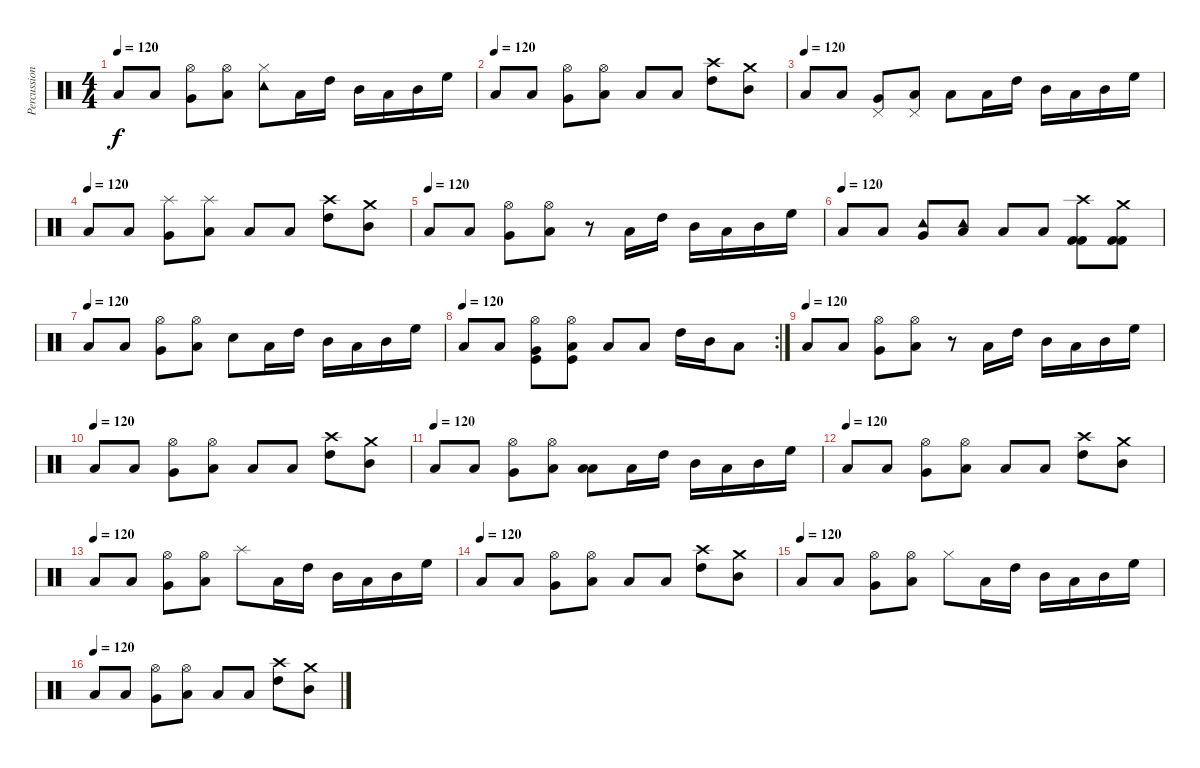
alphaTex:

\track ("Percussion" "Percussion") {instrument percussion}
\staff {score}
\articulation defaults
\ts (4 4)
\tempo 120
\clef neutral
\ks c "Low Floor Tom (hit)".8{dy f} "Low Floor Tom (hit)".8
("Very Low Tom (hit)" "Hi-Hat (open)").8 ("Low Tom (hit)" "Hi-Hat (open)").8 ("Hi-Hat (closed)" "Tambourine (hit)").8 "Low Floor Tom (hit)".16 "High Tom (hit)".16 "Mid Tom (hit)".16 "Low Tom (hit)".16 "Mid Tom (hit)".16 "High Floor Tom (hit)".16 |
\tempo (120)
"Low Floor Tom (hit)".8 "Low Floor Tom (hit)".8 ("Very Low Tom (hit)" "Hi-Hat (open)").8 ("Low Tom (hit)" "Hi-Hat (open)").8 "Low Floor Tom (hit)".8 "Low Floor Tom (hit)".8 ("High Tom (hit)" "Crash high (hit)").8 ("Mid Tom (hit)" "Crash medium (hit)").8 |
\tempo (120)
"Low Floor Tom (hit)".8 "Low Floor Tom (hit)".8 ("Very Low Tom (hit)" "Pedal Hi-Hat (hit)").8 ("Low Tom (hit)" "Pedal Hi-Hat (hit)").8 "Low Tom (hit)".8 "Low Floor Tom (hit)".16 "High Tom (hit)".16 "Mid Tom (hit)".16 "Low Tom (hit)".16 "Mid Tom (hit)".16 "High Floor Tom (hit)".16 |
\tempo (120)
"Low Floor Tom (hit)".8 "Low Floor Tom (hit)".8 ("Very Low Tom (hit)" "Splash (hit)").8 ("Low Tom (hit)" "Splash (hit)").8 "Low Floor Tom (hit)".8 "Low Floor Tom (hit)".8 ("High Tom (hit)" "Crash high (hit)").8 ("Mid Tom (hit)" "Crash medium (hit)").8 |
\tempo (120)
"Low Floor Tom (hit)".8 "Low Floor Tom (hit)".8 ("Very Low Tom (hit)" "Hi-Hat (open)").8 ("Low Tom (hit)" "Hi-Hat (open)").8 r.8 "Low Floor Tom (hit)".16 "High Tom (hit)".16 "Mid Tom (hit)".16 "Low Tom (hit)".16 "Mid Tom (hit)".16 "High Floor Tom (hit)".16 |
\tempo (120)
"Low Floor Tom (hit)".8 "Low Floor Tom (hit)".8 ("Very Low Tom (hit)" "Tambourine (hit)").8 ("Low Tom (hit)" "Tambourine (hit)").8 "Low Floor Tom (hit)".8 "Low Floor Tom (hit)".8 ("Kick (hit) 2" "Crash high (hit)" "Kick (hit) 2").8 ("Kick (hit) 2" "Crash medium (hit)" "Kick (hit) 2").8 |
\tempo (120)
"Low Floor Tom (hit)".8 "Low Floor Tom (hit)".8 ("Very Low Tom (hit)" "Hi-Hat (open)").8 ("Low Tom (hit)" "Hi-Hat (open)").8 "Electric Snare (hit)".8 "Low Floor Tom (hit)".16 "High Tom (hit)".16 "Mid Tom (hit)".16 "Low Tom (hit)".16 "Mid Tom (hit)".16 "High Floor Tom (hit)".16 |
\rc 2
\tempo (120)
"Low Floor Tom (hit)".8 "Low Floor Tom (hit)".8 ("Very Low Tom (hit)" "Hi-Hat (open)" "Kick (hit)").8 ("Low Tom (hit)" "Hi-Hat (open)" "Kick (hit)").8 "Low Floor Tom (hit)".8 "Low Floor Tom (hit)".8 "High Tom (hit)".16 "Mid Tom (hit)".16 "Low Tom (hit)".8 |
\tempo (120)
"Low Floor Tom (hit)".8 "Low Floor Tom (hit)".8 ("Very Low Tom (hit)" "Hi-Hat (open)").8 ("Low Tom (hit)" "Hi-Hat (open)").8 r.8 "Low Floor Tom (hit)".16 "High Tom (hit)".16 "Mid Tom (hit)".16 "Low Tom (hit)".16 "Mid Tom (hit)".16 "High Floor Tom (hit)".16 |
\tempo (120)
"Low Floor Tom (hit)".8 "Low Floor Tom (hit)".8 ("Very Low Tom (hit)" "Hi-Hat (open)").8 ("Low Tom (hit)" "Hi-Hat (open)").8 "Low Floor Tom (hit)".8 "Low Floor Tom (hit)".8 ("High Tom (hit)" "Crash high (hit)").8 ("Mid Tom (hit)" "Crash medium (hit)").8 |
\tempo (120)
"Low Floor Tom (hit)".8 "Low Floor Tom (hit)".8 ("Very Low Tom (hit)" "Hi-Hat (open)").8 ("Low Tom (hit)" "Hi-Hat (open)").8 ("Low Floor Tom (hit)" "Low Tom (hit)").8 "Low Floor Tom (hit)".16 "High Tom (hit)".16 "Mid Tom (hit)".16 "Low Tom (hit)".16 "Mid Tom (hit)".16 "High Floor Tom (hit)".16 |
\tempo (120)
"Low Floor Tom (hit)".8 "Low Floor Tom (hit)".8 ("Very Low Tom (hit)" "Hi-Hat (open)").8 ("Low Tom (hit)" "Hi-Hat (open)").8 "Low Floor Tom (hit)".8 "Low Floor Tom (hit)".8 ("High Tom (hit)" "Crash high (hit)").8 ("Mid Tom (hit)" "Crash medium (hit)").8 |
\tempo (120)
"Low Floor Tom (hit)".8 "Low Floor Tom (hit)".8 ("Very Low Tom (hit)" "Hi-Hat (open)").8 ("Low Tom (hit)" "Hi-Hat (open)").8 "Splash (hit)".8 "Low Floor Tom (hit)".16 "High Tom (hit)".16 "Mid Tom (hit)".16 "Low Tom (hit)".16 "Mid Tom (hit)".16 "High Floor Tom (hit)".16 |
\tempo (120)
"Low Floor Tom (hit)".8 "Low Floor Tom (hit)".8 ("Very Low Tom (hit)" "Hi-Hat (open)").8 ("Low Tom (hit)" "Hi-Hat (open)").8 "Low Floor Tom (hit)".8 "Low Floor Tom (hit)".8 ("High Tom (hit)" "Crash high (hit)").8 ("Mid Tom (hit)" "Crash medium (hit)").8 |
\tempo (120)
"Low Floor Tom (hit)".8 "Low Floor Tom (hit)".8 ("Very Low Tom (hit)" "Hi-Hat (open)").8 ("Low Tom (hit)" "Hi-Hat (open)").8 "Hi-Hat (closed)".8 "Low Floor Tom (hit)".16 "High Tom (hit)".16 "Mid Tom (hit)".16 "Low Tom (hit)".16 "Mid Tom (hit)".16 "High Floor Tom (hit)".16 |
\tempo (120)
"Low Floor Tom (hit)".8 "Low Floor Tom (hit)".8 ("Very Low Tom (hit)" "Hi-Hat (open)").8 ("Low Tom (hit)" "Hi-Hat (open)").8 "Low Floor Tom (hit)".8 "Low Floor Tom (hit)".8 ("High Tom (hit)" "Crash high (hit)").8 ("Mid Tom (hit)" "Crash medium (hit)").8
